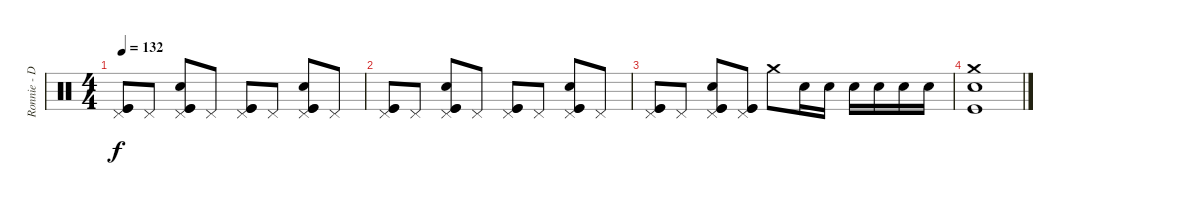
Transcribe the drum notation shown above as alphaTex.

\track ("Ronnie - Drums" "Ronnie - D") {instrument percussion}
\staff {score}
\articulation defaults
\ts (4 4)
\tempo 132
\clef neutral
\ks c
("Pedal Hi-Hat (hit)" "Kick (hit)" "Kick (hit)").8{dy f} "Pedal Hi-Hat (hit)".8 ("Pedal Hi-Hat (hit)" "Electric Snare (hit)" "Kick (hit)" "Kick (hit)").8 "Pedal Hi-Hat (hit)".8 ("Pedal Hi-Hat (hit)" "Kick (hit)" "Kick (hit)").8 "Pedal Hi-Hat (hit)".8 ("Pedal Hi-Hat (hit)" "Electric Snare (hit)" "Kick (hit)" "Kick (hit)").8 "Pedal Hi-Hat (hit)".8 |
("Pedal Hi-Hat (hit)" "Kick (hit)" "Kick (hit)").8 "Pedal Hi-Hat (hit)".8 ("Pedal Hi-Hat (hit)" "Electric Snare (hit)" "Kick (hit)" "Kick (hit)").8 "Pedal Hi-Hat (hit)".8 ("Pedal Hi-Hat (hit)" "Kick (hit)" "Kick (hit)").8 "Pedal Hi-Hat (hit)".8 ("Pedal Hi-Hat (hit)" "Electric Snare (hit)" "Kick (hit)" "Kick (hit)").8 "Pedal Hi-Hat (hit)".8 |
("Pedal Hi-Hat (hit)" "Kick (hit)" "Kick (hit)").8 "Pedal Hi-Hat (hit)".8 ("Pedal Hi-Hat (hit)" "Electric Snare (hit)" "Kick (hit)" "Kick (hit)").8 ("Pedal Hi-Hat (hit)" "Kick (hit)" "Kick (hit)").8 "Crash medium (hit)".8 "Electric Snare (hit)".16 "Electric Snare (hit)".16 "Electric Snare (hit)".16 "Electric Snare (hit)".16 "Electric Snare (hit)".16 "Electric Snare (hit)".16 |
("Crash medium (hit)" "Electric Snare (hit)" "Kick (hit)").1
